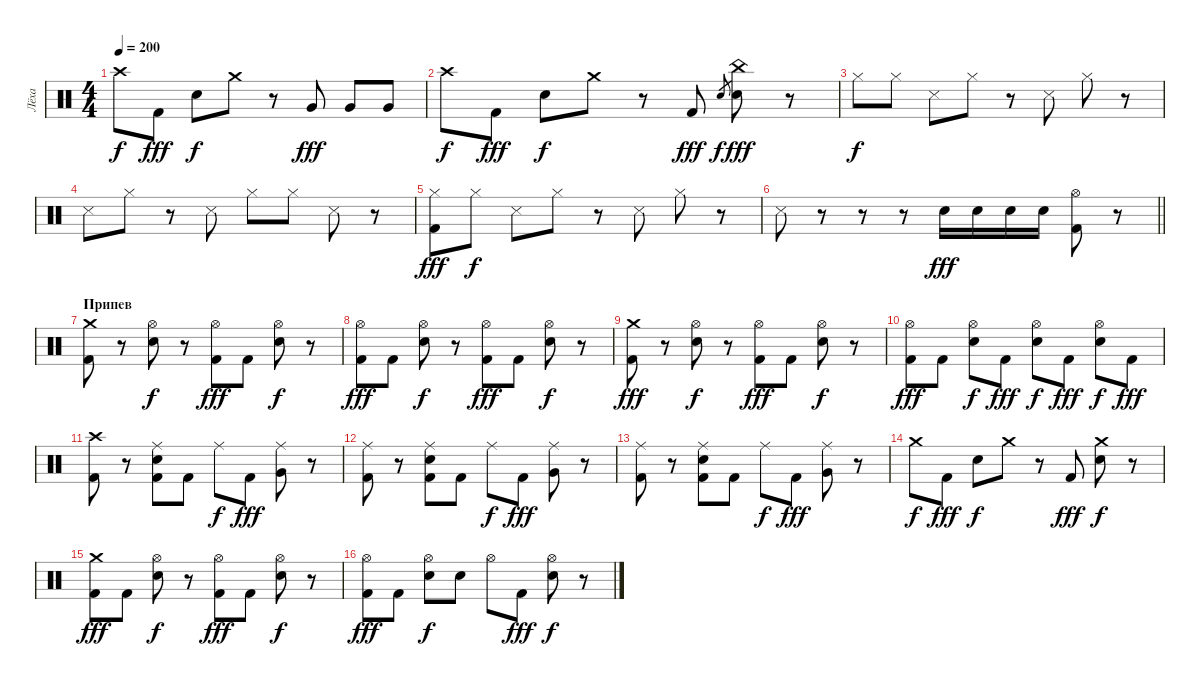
\track ("Лёха" "Лёха") {instrument percussion}
\staff {score}
\articulation defaults
\ts (4 4)
\tempo 200
\clef neutral
\ks c "Crash high (hit)".8{dy f} "Kick (hit) 2".8{dy fff} "Electric Snare (hit)".8{dy f} "Crash medium (hit)".8
r.8 "Very Low Tom (hit)".8{dy fff} "Very Low Tom (hit)".8 "Very Low Tom (hit)".8 |
"Crash high (hit)".8{dy f} "Kick (hit) 2".8{dy fff} "Electric Snare (hit)".8{dy f} "Crash medium (hit)".8 r.8 "Kick (hit) 2".8{dy fff} "Electric Snare (hit)".8{gr dy f} ("China (hit)" "Electric Snare (hit)").8{dy fff} r.8 |
"Hi-Hat (closed)".8{dy f} "Hi-Hat (closed)".8 "Snare (side stick) 3".8 "Hi-Hat (closed)".8 r.8 "Snare (side stick) 3".8 "Hi-Hat (closed)".8 r.8 |
"Snare (side stick) 3".8 "Hi-Hat (closed)".8 r.8 "Snare (side stick) 3".8 "Hi-Hat (closed)".8 "Hi-Hat (closed)".8 "Snare (side stick) 3".8 r.8 |
("Hi-Hat (closed)" "Kick (hit) 2").8{dy fff} "Hi-Hat (closed)".8{dy f} "Snare (side stick) 3".8 "Hi-Hat (closed)".8 r.8 "Snare (side stick) 3".8 "Hi-Hat (closed)".8 r.8 |
\barLineRight lightlight "Snare (side stick) 3".8
r.8 r.8 r.8 "Electric Snare (hit)".16{dy fff} "Electric Snare (hit)".16 "Electric Snare (hit)".16 "Electric Snare (hit)".16 ("Hi-Hat (open)" "Kick (hit) 2").8 r.8 |
\section ("" "Припев")
("Crash medium (hit)" "Kick (hit) 2").8 r.8 ("Hi-Hat (open)" "Electric Snare (hit)").8{dy f} r.8 ("Hi-Hat (open)" "Kick (hit) 2").8{dy fff} "Kick (hit) 2".8 ("Hi-Hat (open)" "Electric Snare (hit)").8{dy f} r.8 |
("Hi-Hat (open)" "Kick (hit) 2").8{dy fff} "Kick (hit) 2".8 ("Hi-Hat (open)" "Electric Snare (hit)").8{dy f} r.8 ("Hi-Hat (open)" "Kick (hit) 2").8{dy fff} "Kick (hit) 2".8 ("Hi-Hat (open)" "Electric Snare (hit)").8{dy f} r.8 |
("Crash medium (hit)" "Kick (hit) 2").8{dy fff} r.8 ("Hi-Hat (open)" "Electric Snare (hit)").8{dy f} r.8 ("Hi-Hat (open)" "Kick (hit) 2").8{dy fff} "Kick (hit) 2".8 ("Hi-Hat (open)" "Electric Snare (hit)").8{dy f} r.8 |
("Hi-Hat (open)" "Kick (hit) 2").8{dy fff} "Kick (hit) 2".8 ("Hi-Hat (open)" "Electric Snare (hit)").8{dy f} "Kick (hit) 2".8{dy fff} ("Hi-Hat (open)" "Electric Snare (hit)").8{dy f} "Kick (hit) 2".8{dy fff} ("Hi-Hat (open)" "Electric Snare (hit)").8{dy f} "Kick (hit) 2".8{dy fff} |
("Crash high (hit)" "Kick (hit) 2").8 r.8 ("Ride (middle)" "Electric Snare (hit)" "Kick (hit) 2").8 "Kick (hit) 2".8 "Ride (middle)".8{dy f} "Kick (hit) 2".8{dy fff} ("Ride (middle)" "Very Low Tom (hit)").8 r.8 |
("Ride (middle)" "Kick (hit) 2").8 r.8 ("Ride (middle)" "Electric Snare (hit)" "Kick (hit) 2").8 "Kick (hit) 2".8 "Ride (middle)".8{dy f} "Kick (hit) 2".8{dy fff} ("Ride (middle)" "Very Low Tom (hit)").8 r.8 |
("Ride (middle)" "Kick (hit) 2").8 r.8 ("Ride (middle)" "Electric Snare (hit)" "Kick (hit) 2").8 "Kick (hit) 2".8 "Ride (middle)".8{dy f} "Kick (hit) 2".8{dy fff} ("Ride (middle)" "Very Low Tom (hit)").8 r.8 |
"Crash medium (hit)".8{dy f} "Kick (hit) 2".8{dy fff} "Electric Snare (hit)".8{dy f} "Crash medium (hit)".8 r.8 "Kick (hit) 2".8{dy fff} ("Crash medium (hit)" "Electric Snare (hit)").8{dy f} r.8 |
("Crash medium (hit)" "Kick (hit) 2").8{dy fff} "Kick (hit) 2".8 ("Hi-Hat (open)" "Electric Snare (hit)").8{dy f} r.8 ("Hi-Hat (open)" "Kick (hit) 2").8{dy fff} "Kick (hit) 2".8 ("Hi-Hat (open)" "Electric Snare (hit)").8{dy f} r.8 |
("Hi-Hat (open)" "Kick (hit) 2").8{dy fff} "Kick (hit) 2".8 ("Hi-Hat (open)" "Electric Snare (hit)").8{dy f} "Electric Snare (hit)".8 "Hi-Hat (open)".8 "Kick (hit) 2".8{dy fff} ("Hi-Hat (open)" "Electric Snare (hit)").8{dy f} r.8
